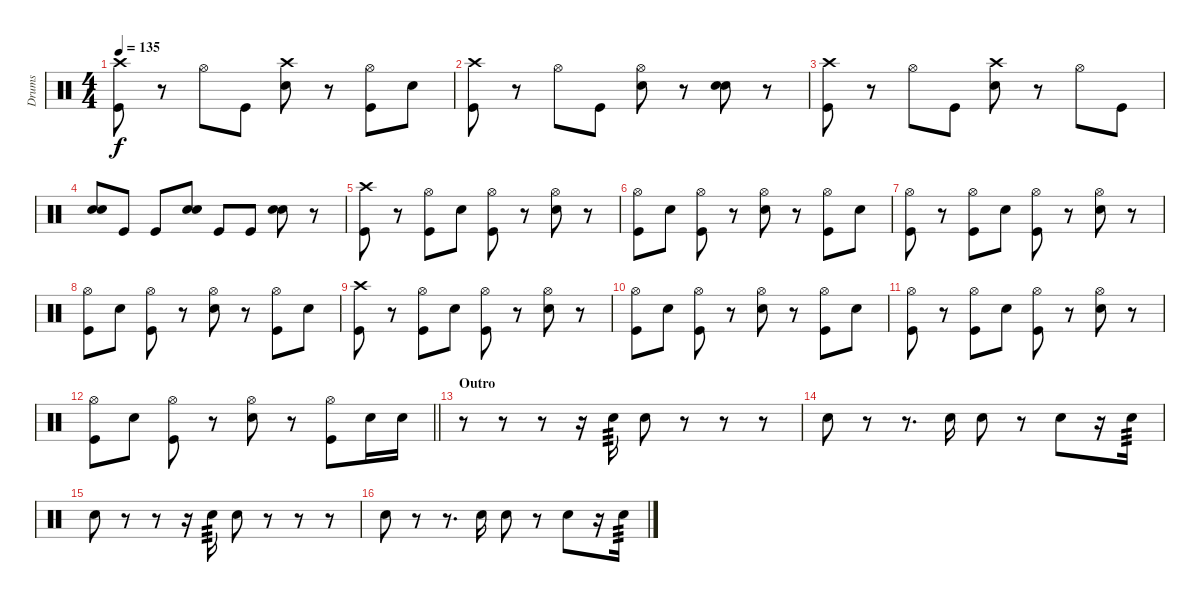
\track ("Drums" "Drums") {instrument percussion}
\staff {score}
\articulation defaults
\ts (4 4)
\tempo 135
\clef neutral
\ks c
("Crash high (hit)" "Kick (hit)").8{dy f} r.8 "Hi-Hat (open)".8 "Kick (hit)".8 ("Crash high (hit)" "Electric Snare (hit)").8 r.8 ("Hi-Hat (open)" "Kick (hit)").8 "Electric Snare (hit)".8 |
("Crash high (hit)" "Kick (hit)").8 r.8 "Hi-Hat (open)".8 "Kick (hit)".8 ("Hi-Hat (open)" "Electric Snare (hit)").8 r.8 ("Electric Snare (hit)" "Electric Snare (hit)").8{bd 60} r.8 |
("Crash high (hit)" "Kick (hit)").8 r.8 "Hi-Hat (open)".8 "Kick (hit)".8 ("Crash high (hit)" "Electric Snare (hit)").8 r.8 "Hi-Hat (open)".8 "Kick (hit)".8 |
("Electric Snare (hit)" "Electric Snare (hit)").8{bd 60} "Kick (hit)".8 "Kick (hit)".8 ("Electric Snare (hit)" "Electric Snare (hit)").8{bd 60} "Kick (hit)".8 "Kick (hit)".8 ("Electric Snare (hit)" "Electric Snare (hit)").8{bd 60} r.8 |
("Crash high (hit)" "Kick (hit)").8 r.8 ("Hi-Hat (open)" "Kick (hit)").8 "Electric Snare (hit)".8 ("Hi-Hat (open)" "Kick (hit)").8 r.8 ("Hi-Hat (open)" "Electric Snare (hit)").8 r.8 |
("Hi-Hat (open)" "Kick (hit)").8 "Electric Snare (hit)".8 ("Hi-Hat (open)" "Kick (hit)").8 r.8 ("Hi-Hat (open)" "Electric Snare (hit)").8 r.8 ("Hi-Hat (open)" "Kick (hit)").8 "Electric Snare (hit)".8 |
("Hi-Hat (open)" "Kick (hit)").8 r.8 ("Hi-Hat (open)" "Kick (hit)").8 "Electric Snare (hit)".8 ("Hi-Hat (open)" "Kick (hit)").8 r.8 ("Hi-Hat (open)" "Electric Snare (hit)").8 r.8 |
("Hi-Hat (open)" "Kick (hit)").8 "Electric Snare (hit)".8 ("Hi-Hat (open)" "Kick (hit)").8 r.8 ("Hi-Hat (open)" "Electric Snare (hit)").8 r.8 ("Hi-Hat (open)" "Kick (hit)").8 "Electric Snare (hit)".8 |
("Crash high (hit)" "Kick (hit)").8 r.8 ("Hi-Hat (open)" "Kick (hit)").8 "Electric Snare (hit)".8 ("Hi-Hat (open)" "Kick (hit)").8 r.8 ("Hi-Hat (open)" "Electric Snare (hit)").8 r.8 |
("Hi-Hat (open)" "Kick (hit)").8 "Electric Snare (hit)".8 ("Hi-Hat (open)" "Kick (hit)").8 r.8 ("Hi-Hat (open)" "Electric Snare (hit)").8 r.8 ("Hi-Hat (open)" "Kick (hit)").8 "Electric Snare (hit)".8 |
("Hi-Hat (open)" "Kick (hit)").8 r.8 ("Hi-Hat (open)" "Kick (hit)").8 "Electric Snare (hit)".8 ("Hi-Hat (open)" "Kick (hit)").8 r.8 ("Hi-Hat (open)" "Electric Snare (hit)").8 r.8 |
\barLineRight lightlight
("Hi-Hat (open)" "Kick (hit)").8 "Electric Snare (hit)".8 ("Hi-Hat (open)" "Kick (hit)").8 r.8 ("Hi-Hat (open)" "Electric Snare (hit)").8 r.8 ("Hi-Hat (open)" "Kick (hit)").8 "Electric Snare (hit)".16 "Electric Snare (hit)".16 |
\section ("" "Outro")
r.8 r.8 r.8 r.16 "Electric Snare (hit)".16{tp 3} "Electric Snare (hit)".8 r.8 r.8 r.8 |
"Electric Snare (hit)".8 r.8 r.8{d} "Electric Snare (hit)".16 "Electric Snare (hit)".8 r.8 "Electric Snare (hit)".8 r.16 "Electric Snare (hit)".16{tp 3} |
"Electric Snare (hit)".8 r.8 r.8 r.16 "Electric Snare (hit)".16{tp 3} "Electric Snare (hit)".8 r.8 r.8 r.8 |
"Electric Snare (hit)".8 r.8 r.8{d} "Electric Snare (hit)".16 "Electric Snare (hit)".8 r.8 "Electric Snare (hit)".8 r.16 "Electric Snare (hit)".16{tp 3}
